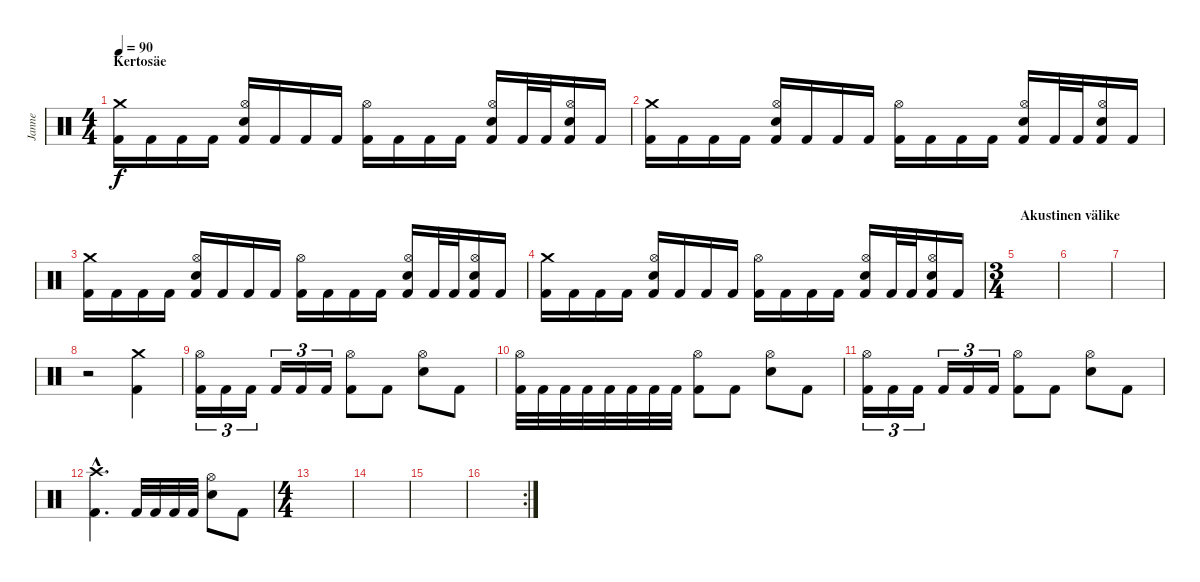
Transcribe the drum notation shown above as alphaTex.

\track ("Janne" "Janne") {instrument percussion}
\staff {score}
\articulation defaults
\ts (4 4)
\section ("" "Kertosäe")
\tempo 90
\clef neutral
\ks c
("Crash medium (hit)" "Kick (hit) 2").16{dy f} "Kick (hit) 2".16 "Kick (hit) 2".16 "Kick (hit) 2".16 ("Hi-Hat (open)" "Electric Snare (hit)" "Kick (hit) 2").16 "Kick (hit) 2".16 "Kick (hit) 2".16 "Kick (hit) 2".16 ("Hi-Hat (open)" "Kick (hit) 2").16 "Kick (hit) 2".16 "Kick (hit) 2".16 "Kick (hit) 2".16 ("Hi-Hat (open)" "Electric Snare (hit)" "Kick (hit) 2").16 "Kick (hit) 2".32 "Kick (hit) 2".32 ("Hi-Hat (open)" "Electric Snare (hit)" "Kick (hit) 2").16 "Kick (hit) 2".16 |
("Crash medium (hit)" "Kick (hit) 2").16 "Kick (hit) 2".16 "Kick (hit) 2".16 "Kick (hit) 2".16 ("Hi-Hat (open)" "Electric Snare (hit)" "Kick (hit) 2").16 "Kick (hit) 2".16 "Kick (hit) 2".16 "Kick (hit) 2".16 ("Hi-Hat (open)" "Kick (hit) 2").16 "Kick (hit) 2".16 "Kick (hit) 2".16 "Kick (hit) 2".16 ("Hi-Hat (open)" "Electric Snare (hit)" "Kick (hit) 2").16 "Kick (hit) 2".32 "Kick (hit) 2".32 ("Hi-Hat (open)" "Electric Snare (hit)" "Kick (hit) 2").16 "Kick (hit) 2".16 |
("Crash medium (hit)" "Kick (hit) 2").16 "Kick (hit) 2".16 "Kick (hit) 2".16 "Kick (hit) 2".16 ("Hi-Hat (open)" "Electric Snare (hit)" "Kick (hit) 2").16 "Kick (hit) 2".16 "Kick (hit) 2".16 "Kick (hit) 2".16 ("Hi-Hat (open)" "Kick (hit) 2").16 "Kick (hit) 2".16 "Kick (hit) 2".16 "Kick (hit) 2".16 ("Hi-Hat (open)" "Electric Snare (hit)" "Kick (hit) 2").16 "Kick (hit) 2".32 "Kick (hit) 2".32 ("Hi-Hat (open)" "Electric Snare (hit)" "Kick (hit) 2").16 "Kick (hit) 2".16 |
("Crash medium (hit)" "Kick (hit) 2").16 "Kick (hit) 2".16 "Kick (hit) 2".16 "Kick (hit) 2".16 ("Hi-Hat (open)" "Electric Snare (hit)" "Kick (hit) 2").16 "Kick (hit) 2".16 "Kick (hit) 2".16 "Kick (hit) 2".16 ("Hi-Hat (open)" "Kick (hit) 2").16 "Kick (hit) 2".16 "Kick (hit) 2".16 "Kick (hit) 2".16 ("Hi-Hat (open)" "Electric Snare (hit)" "Kick (hit) 2").16 "Kick (hit) 2".32 "Kick (hit) 2".32 ("Hi-Hat (open)" "Electric Snare (hit)" "Kick (hit) 2").16 "Kick (hit) 2".16 |
\ts (3 4)
\section ("" "Akustinen välike")
|
|
|
r.2 ("Crash medium (hit)" "Kick (hit) 2").4 |
("Hi-Hat (open)" "Kick (hit) 2").16{tu (3 2)} "Kick (hit) 2".16{tu (3 2)} "Kick (hit) 2".16{tu (3 2)} "Kick (hit) 2".16{tu (3 2)} "Kick (hit) 2".16{tu (3 2)} "Kick (hit) 2".16{tu (3 2)} ("Hi-Hat (open)" "Kick (hit) 2").8 "Kick (hit) 2".8 ("Hi-Hat (open)" "Electric Snare (hit)").8 "Kick (hit) 2".8 |
("Hi-Hat (open)" "Kick (hit) 2").32 "Kick (hit) 2".32 "Kick (hit) 2".32 "Kick (hit) 2".32 "Kick (hit) 2".32 "Kick (hit) 2".32 "Kick (hit) 2".32 "Kick (hit) 2".32 ("Hi-Hat (open)" "Kick (hit) 2").8 "Kick (hit) 2".8 ("Hi-Hat (open)" "Electric Snare (hit)").8 "Kick (hit) 2".8 |
("Hi-Hat (open)" "Kick (hit) 2").16{tu (3 2)} "Kick (hit) 2".16{tu (3 2)} "Kick (hit) 2".16{tu (3 2)} "Kick (hit) 2".16{tu (3 2)} "Kick (hit) 2".16{tu (3 2)} "Kick (hit) 2".16{tu (3 2)} ("Hi-Hat (open)" "Kick (hit) 2").8 "Kick (hit) 2".8 ("Hi-Hat (open)" "Electric Snare (hit)").8 "Kick (hit) 2".8 |
("Crash high (hit)"{hac} "Kick (hit) 2"{hac}).4{d} "Kick (hit) 2".32 "Kick (hit) 2".32 "Kick (hit) 2".32 "Kick (hit) 2".32 ("Hi-Hat (open)" "Electric Snare (hit)").8 "Kick (hit) 2".8 |
\ts (4 4)
|
|
|
\rc 2
